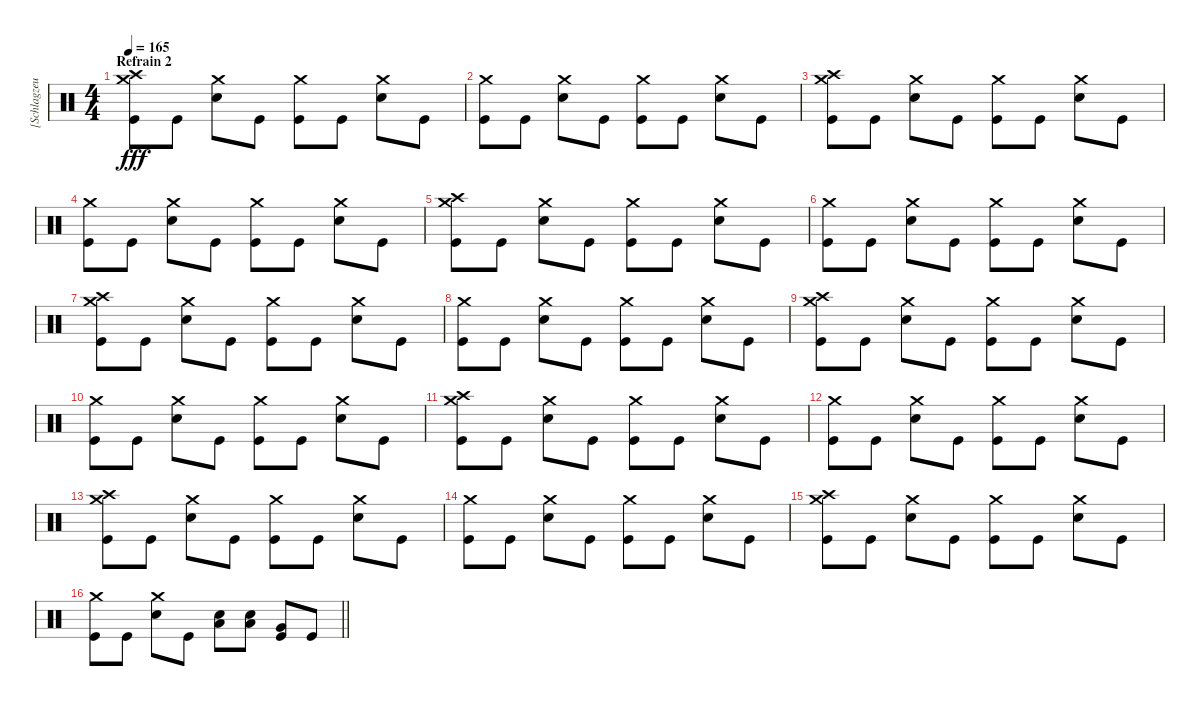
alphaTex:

\track ("[Schlagzeug]" "[Schlagzeu") {instrument percussion}
\staff {score}
\articulation defaults
\ts (4 4)
\section ("" "Refrain 2")
\tempo 165
\clef neutral
\ks c
("Crash high (hit)" "Crash medium (hit)" "Kick (hit)").8{dy fff} "Kick (hit)".8 ("Crash medium (hit)" "Electric Snare (hit)").8 "Kick (hit)".8 ("Crash medium (hit)" "Kick (hit)").8 "Kick (hit)".8 ("Crash medium (hit)" "Electric Snare (hit)").8 "Kick (hit)".8 |
("Crash medium (hit)" "Kick (hit)").8 "Kick (hit)".8 ("Crash medium (hit)" "Electric Snare (hit)").8 "Kick (hit)".8 ("Crash medium (hit)" "Kick (hit)").8 "Kick (hit)".8 ("Crash medium (hit)" "Electric Snare (hit)").8 "Kick (hit)".8 |
("Crash high (hit)" "Crash medium (hit)" "Kick (hit)").8 "Kick (hit)".8 ("Crash medium (hit)" "Electric Snare (hit)").8 "Kick (hit)".8 ("Crash medium (hit)" "Kick (hit)").8 "Kick (hit)".8 ("Crash medium (hit)" "Electric Snare (hit)").8 "Kick (hit)".8 |
("Crash medium (hit)" "Kick (hit)").8 "Kick (hit)".8 ("Crash medium (hit)" "Electric Snare (hit)").8 "Kick (hit)".8 ("Crash medium (hit)" "Kick (hit)").8 "Kick (hit)".8 ("Crash medium (hit)" "Electric Snare (hit)").8 "Kick (hit)".8 |
("Crash high (hit)" "Crash medium (hit)" "Kick (hit)").8 "Kick (hit)".8 ("Crash medium (hit)" "Electric Snare (hit)").8 "Kick (hit)".8 ("Crash medium (hit)" "Kick (hit)").8 "Kick (hit)".8 ("Crash medium (hit)" "Electric Snare (hit)").8 "Kick (hit)".8 |
("Crash medium (hit)" "Kick (hit)").8 "Kick (hit)".8 ("Crash medium (hit)" "Electric Snare (hit)").8 "Kick (hit)".8 ("Crash medium (hit)" "Kick (hit)").8 "Kick (hit)".8 ("Crash medium (hit)" "Electric Snare (hit)").8 "Kick (hit)".8 |
("Crash high (hit)" "Crash medium (hit)" "Kick (hit)").8 "Kick (hit)".8 ("Crash medium (hit)" "Electric Snare (hit)").8 "Kick (hit)".8 ("Crash medium (hit)" "Kick (hit)").8 "Kick (hit)".8 ("Crash medium (hit)" "Electric Snare (hit)").8 "Kick (hit)".8 |
("Crash medium (hit)" "Kick (hit)").8 "Kick (hit)".8 ("Crash medium (hit)" "Electric Snare (hit)").8 "Kick (hit)".8 ("Crash medium (hit)" "Kick (hit)").8 "Kick (hit)".8 ("Crash medium (hit)" "Electric Snare (hit)").8 "Kick (hit)".8 |
("Crash high (hit)" "Crash medium (hit)" "Kick (hit)").8 "Kick (hit)".8 ("Crash medium (hit)" "Electric Snare (hit)").8 "Kick (hit)".8 ("Crash medium (hit)" "Kick (hit)").8 "Kick (hit)".8 ("Crash medium (hit)" "Electric Snare (hit)").8 "Kick (hit)".8 |
("Crash medium (hit)" "Kick (hit)").8 "Kick (hit)".8 ("Crash medium (hit)" "Electric Snare (hit)").8 "Kick (hit)".8 ("Crash medium (hit)" "Kick (hit)").8 "Kick (hit)".8 ("Crash medium (hit)" "Electric Snare (hit)").8 "Kick (hit)".8 |
("Crash high (hit)" "Crash medium (hit)" "Kick (hit)").8 "Kick (hit)".8 ("Crash medium (hit)" "Electric Snare (hit)").8 "Kick (hit)".8 ("Crash medium (hit)" "Kick (hit)").8 "Kick (hit)".8 ("Crash medium (hit)" "Electric Snare (hit)").8 "Kick (hit)".8 |
("Crash medium (hit)" "Kick (hit)").8 "Kick (hit)".8 ("Crash medium (hit)" "Electric Snare (hit)").8 "Kick (hit)".8 ("Crash medium (hit)" "Kick (hit)").8 "Kick (hit)".8 ("Crash medium (hit)" "Electric Snare (hit)").8 "Kick (hit)".8 |
("Crash high (hit)" "Crash medium (hit)" "Kick (hit)").8 "Kick (hit)".8 ("Crash medium (hit)" "Electric Snare (hit)").8 "Kick (hit)".8 ("Crash medium (hit)" "Kick (hit)").8 "Kick (hit)".8 ("Crash medium (hit)" "Electric Snare (hit)").8 "Kick (hit)".8 |
("Crash medium (hit)" "Kick (hit)").8 "Kick (hit)".8 ("Crash medium (hit)" "Electric Snare (hit)").8 "Kick (hit)".8 ("Crash medium (hit)" "Kick (hit)").8 "Kick (hit)".8 ("Crash medium (hit)" "Electric Snare (hit)").8 "Kick (hit)".8 |
("Crash high (hit)" "Crash medium (hit)" "Kick (hit)").8 "Kick (hit)".8 ("Crash medium (hit)" "Electric Snare (hit)").8 "Kick (hit)".8 ("Crash medium (hit)" "Kick (hit)").8 "Kick (hit)".8 ("Crash medium (hit)" "Electric Snare (hit)").8 "Kick (hit)".8 |
\barLineRight lightlight
("Crash medium (hit)" "Kick (hit)").8 "Kick (hit)".8 ("Crash medium (hit)" "Electric Snare (hit)").8 "Kick (hit)".8 ("Low Tom (hit)" "Electric Snare (hit)").8 ("Low Tom (hit)" "Electric Snare (hit)").8 ("Very Low Tom (hit)" "Kick (hit)").8 "Kick (hit)".8
